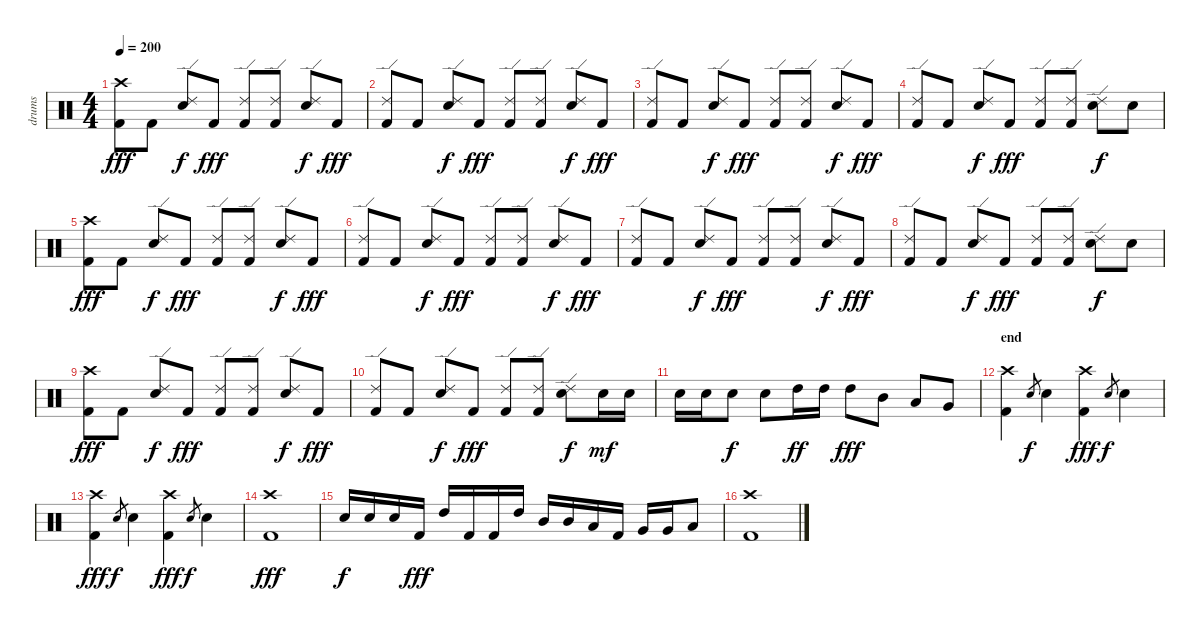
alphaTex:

\track ("drums" "drums") {instrument percussion}
\staff {score}
\articulation defaults
\ts (4 4)
\tempo 200
\clef neutral
\ks c
("Crash high (hit)" "Kick (hit) 2").8{dy fff} "Kick (hit) 2".8 ("Ride (edge) 2" "Snare (hit) 2").8{dy f} "Kick (hit) 2".8{dy fff} ("Ride (edge) 2" "Kick (hit) 2").8 ("Ride (edge) 2" "Kick (hit) 2").8 ("Ride (edge) 2" "Snare (hit) 2").8{dy f} "Kick (hit) 2".8{dy fff} |
("Ride (edge) 2" "Kick (hit) 2").8 "Kick (hit) 2".8 ("Ride (edge) 2" "Snare (hit) 2").8{dy f} "Kick (hit) 2".8{dy fff} ("Ride (edge) 2" "Kick (hit) 2").8 ("Ride (edge) 2" "Kick (hit) 2").8 ("Ride (edge) 2" "Snare (hit) 2").8{dy f} "Kick (hit) 2".8{dy fff} |
("Ride (edge) 2" "Kick (hit) 2").8 "Kick (hit) 2".8 ("Ride (edge) 2" "Snare (hit) 2").8{dy f} "Kick (hit) 2".8{dy fff} ("Ride (edge) 2" "Kick (hit) 2").8 ("Ride (edge) 2" "Kick (hit) 2").8 ("Ride (edge) 2" "Snare (hit) 2").8{dy f} "Kick (hit) 2".8{dy fff} |
("Ride (edge) 2" "Kick (hit) 2").8 "Kick (hit) 2".8 ("Ride (edge) 2" "Snare (hit) 2").8{dy f} "Kick (hit) 2".8{dy fff} ("Ride (edge) 2" "Kick (hit) 2").8 ("Ride (edge) 2" "Kick (hit) 2").8 ("Ride (edge) 2" "Snare (hit) 2").8{dy f} "Snare (hit) 2".8 |
("Crash high (hit)" "Kick (hit) 2").8{dy fff} "Kick (hit) 2".8 ("Ride (edge) 2" "Snare (hit) 2").8{dy f} "Kick (hit) 2".8{dy fff} ("Ride (edge) 2" "Kick (hit) 2").8 ("Ride (edge) 2" "Kick (hit) 2").8 ("Ride (edge) 2" "Snare (hit) 2").8{dy f} "Kick (hit) 2".8{dy fff} |
("Ride (edge) 2" "Kick (hit) 2").8 "Kick (hit) 2".8 ("Ride (edge) 2" "Snare (hit) 2").8{dy f} "Kick (hit) 2".8{dy fff} ("Ride (edge) 2" "Kick (hit) 2").8 ("Ride (edge) 2" "Kick (hit) 2").8 ("Ride (edge) 2" "Snare (hit) 2").8{dy f} "Kick (hit) 2".8{dy fff} |
("Ride (edge) 2" "Kick (hit) 2").8 "Kick (hit) 2".8 ("Ride (edge) 2" "Snare (hit) 2").8{dy f} "Kick (hit) 2".8{dy fff} ("Ride (edge) 2" "Kick (hit) 2").8 ("Ride (edge) 2" "Kick (hit) 2").8 ("Ride (edge) 2" "Snare (hit) 2").8{dy f} "Kick (hit) 2".8{dy fff} |
("Ride (edge) 2" "Kick (hit) 2").8 "Kick (hit) 2".8 ("Ride (edge) 2" "Snare (hit) 2").8{dy f} "Kick (hit) 2".8{dy fff} ("Ride (edge) 2" "Kick (hit) 2").8 ("Ride (edge) 2" "Kick (hit) 2").8 ("Ride (edge) 2" "Snare (hit) 2").8{dy f} "Snare (hit) 2".8 |
("Crash high (hit)" "Kick (hit) 2").8{dy fff} "Kick (hit) 2".8 ("Ride (edge) 2" "Snare (hit) 2").8{dy f} "Kick (hit) 2".8{dy fff} ("Ride (edge) 2" "Kick (hit) 2").8 ("Ride (edge) 2" "Kick (hit) 2").8 ("Ride (edge) 2" "Snare (hit) 2").8{dy f} "Kick (hit) 2".8{dy fff} |
("Ride (edge) 2" "Kick (hit) 2").8 "Kick (hit) 2".8 ("Ride (edge) 2" "Snare (hit) 2").8{dy f} "Kick (hit) 2".8{dy fff} ("Ride (edge) 2" "Kick (hit) 2").8 ("Ride (edge) 2" "Kick (hit) 2").8 ("Ride (edge) 2" "Snare (hit) 2").8{dy f} "Snare (hit) 2".16{dy mf} "Snare (hit) 2".16 |
"Snare (hit) 2".16 "Snare (hit) 2".16 "Snare (hit) 2".8{dy f} "Snare (hit) 2".8 "High Tom (hit)".16{dy ff} "High Tom (hit)".16 "High Tom (hit)".8{dy fff} "Mid Tom (hit)".8 "Low Tom (hit)".8 "Very Low Tom (hit)".8 |
\section ("" "end")
("Crash high (hit)" "Kick (hit) 2").4 "Snare (hit) 2".8{gr dy f} "Snare (hit) 2".4 ("Crash high (hit)" "Kick (hit) 2").4{dy fff} "Snare (hit) 2".8{gr dy f} "Snare (hit) 2".4 |
("Crash high (hit)" "Kick (hit) 2").4{dy fff} "Snare (hit) 2".8{gr dy f} "Snare (hit) 2".4 ("Crash high (hit)" "Kick (hit) 2").4{dy fff} "Snare (hit) 2".8{gr dy f} "Snare (hit) 2".4 |
("Crash high (hit)" "Kick (hit) 2").1{dy fff} |
"Snare (hit) 2".16{dy f} "Snare (hit) 2".16 "Snare (hit) 2".16 "Kick (hit) 2".16{dy fff} "High Tom (hit)".16 "Kick (hit) 2".16 "Kick (hit) 2".16 "High Tom (hit)".16 "Mid Tom (hit)".16 "Mid Tom (hit)".16 "Low Tom (hit)".16 "Kick (hit) 2".16 "Very Low Tom (hit)".16 "Very Low Tom (hit)".16 "Low Floor Tom (hit)".8 |
("Crash high (hit)" "Kick (hit) 2").1
